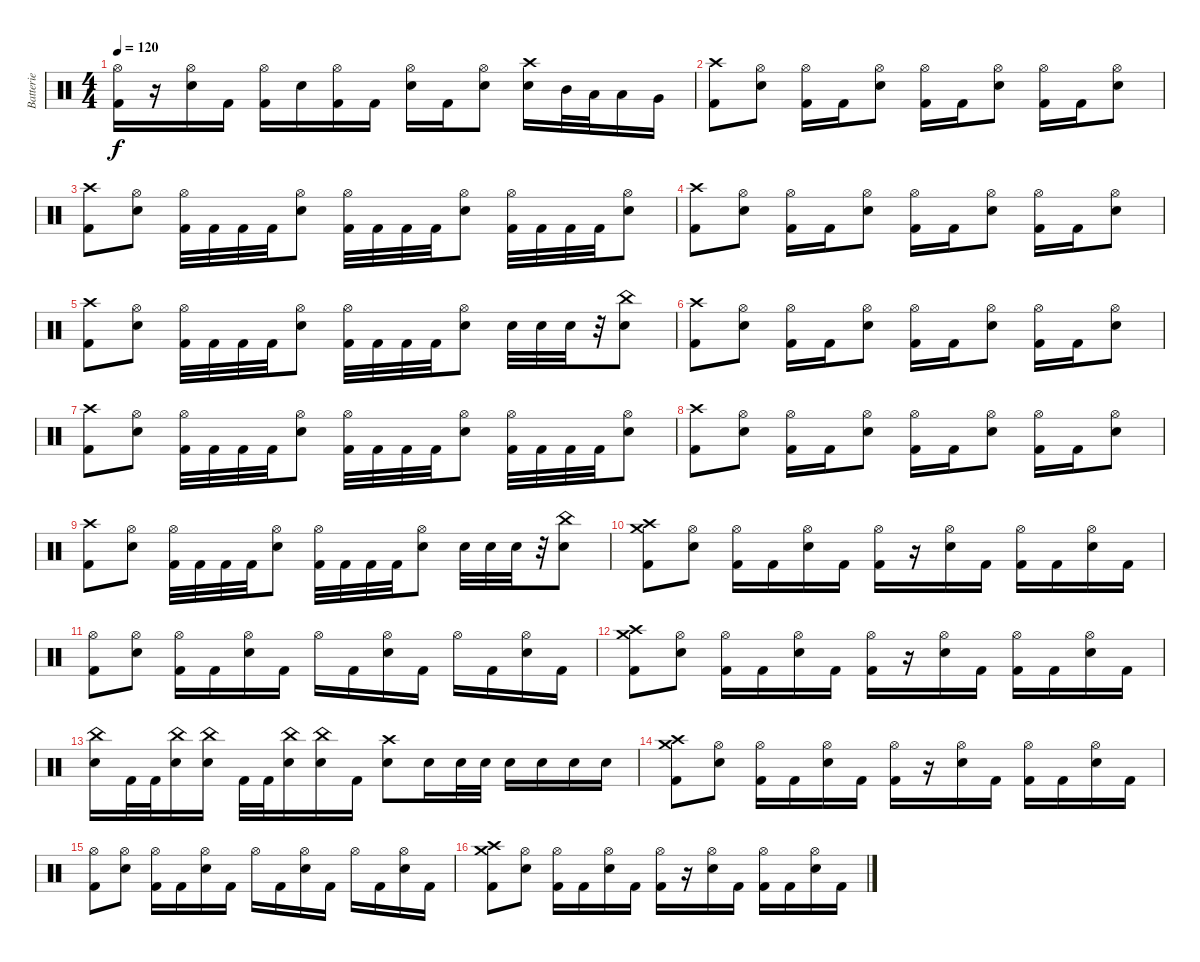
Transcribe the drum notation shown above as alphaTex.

\track ("Batterie" "Batterie") {instrument percussion}
\staff {score}
\articulation defaults
\ts (4 4)
\tempo 120
\clef neutral
\ks c
("Hi-Hat (open)" "Kick (hit) 2").16{dy f} r.16 ("Hi-Hat (open)" "Snare (hit) 2").16 "Kick (hit) 2".16 ("Hi-Hat (open)" "Kick (hit) 2").16 "Snare (hit) 2".16 ("Hi-Hat (open)" "Kick (hit) 2").16 "Kick (hit) 2".16 ("Hi-Hat (open)" "Snare (hit) 2").16 "Kick (hit) 2".16 ("Hi-Hat (open)" "Snare (hit) 2").8 ("Crash high (hit)" "Snare (hit) 2").16 "Mid Tom (hit)".32 "Low Tom (hit)".32 "Low Tom (hit)".16 "Very Low Tom (hit)".16 |
("Crash high (hit)" "Kick (hit) 2").8 ("Hi-Hat (open)" "Snare (hit) 2").8 ("Hi-Hat (open)" "Kick (hit) 2").16 "Kick (hit) 2".16 ("Hi-Hat (open)" "Snare (hit) 2").8 ("Hi-Hat (open)" "Kick (hit) 2").16 "Kick (hit) 2".16 ("Hi-Hat (open)" "Snare (hit) 2").8 ("Hi-Hat (open)" "Kick (hit) 2").16 "Kick (hit) 2".16 ("Hi-Hat (open)" "Snare (hit) 2").8 |
("Crash high (hit)" "Kick (hit) 2").8 ("Hi-Hat (open)" "Snare (hit) 2").8 ("Hi-Hat (open)" "Kick (hit) 2").32 "Kick (hit) 2".32 "Kick (hit) 2".32 "Kick (hit) 2".32 ("Hi-Hat (open)" "Snare (hit) 2").8 ("Hi-Hat (open)" "Kick (hit) 2").32 "Kick (hit) 2".32 "Kick (hit) 2".32 "Kick (hit) 2".32 ("Hi-Hat (open)" "Snare (hit) 2").8 ("Hi-Hat (open)" "Kick (hit) 2").32 "Kick (hit) 2".32 "Kick (hit) 2".32 "Kick (hit) 2".32 ("Hi-Hat (open)" "Snare (hit) 2").8 |
("Crash high (hit)" "Kick (hit) 2").8 ("Hi-Hat (open)" "Snare (hit) 2").8 ("Hi-Hat (open)" "Kick (hit) 2").16 "Kick (hit) 2".16 ("Hi-Hat (open)" "Snare (hit) 2").8 ("Hi-Hat (open)" "Kick (hit) 2").16 "Kick (hit) 2".16 ("Hi-Hat (open)" "Snare (hit) 2").8 ("Hi-Hat (open)" "Kick (hit) 2").16 "Kick (hit) 2".16 ("Hi-Hat (open)" "Snare (hit) 2").8 |
("Crash high (hit)" "Kick (hit) 2").8 ("Hi-Hat (open)" "Snare (hit) 2").8 ("Hi-Hat (open)" "Kick (hit) 2").32 "Kick (hit) 2".32 "Kick (hit) 2".32 "Kick (hit) 2".32 ("Hi-Hat (open)" "Snare (hit) 2").8 ("Hi-Hat (open)" "Kick (hit) 2").32 "Kick (hit) 2".32 "Kick (hit) 2".32 "Kick (hit) 2".32 ("Hi-Hat (open)" "Snare (hit) 2").8 "Snare (hit) 2".32 "Snare (hit) 2".32 "Snare (hit) 2".32 r.32 ("China (hit)" "Snare (hit) 2").8 |
("Crash high (hit)" "Kick (hit) 2").8 ("Hi-Hat (open)" "Snare (hit) 2").8 ("Hi-Hat (open)" "Kick (hit) 2").16 "Kick (hit) 2".16 ("Hi-Hat (open)" "Snare (hit) 2").8 ("Hi-Hat (open)" "Kick (hit) 2").16 "Kick (hit) 2".16 ("Hi-Hat (open)" "Snare (hit) 2").8 ("Hi-Hat (open)" "Kick (hit) 2").16 "Kick (hit) 2".16 ("Hi-Hat (open)" "Snare (hit) 2").8 |
("Crash high (hit)" "Kick (hit) 2").8 ("Hi-Hat (open)" "Snare (hit) 2").8 ("Hi-Hat (open)" "Kick (hit) 2").32 "Kick (hit) 2".32 "Kick (hit) 2".32 "Kick (hit) 2".32 ("Hi-Hat (open)" "Snare (hit) 2").8 ("Hi-Hat (open)" "Kick (hit) 2").32 "Kick (hit) 2".32 "Kick (hit) 2".32 "Kick (hit) 2".32 ("Hi-Hat (open)" "Snare (hit) 2").8 ("Hi-Hat (open)" "Kick (hit) 2").32 "Kick (hit) 2".32 "Kick (hit) 2".32 "Kick (hit) 2".32 ("Hi-Hat (open)" "Snare (hit) 2").8 |
("Crash high (hit)" "Kick (hit) 2").8 ("Hi-Hat (open)" "Snare (hit) 2").8 ("Hi-Hat (open)" "Kick (hit) 2").16 "Kick (hit) 2".16 ("Hi-Hat (open)" "Snare (hit) 2").8 ("Hi-Hat (open)" "Kick (hit) 2").16 "Kick (hit) 2".16 ("Hi-Hat (open)" "Snare (hit) 2").8 ("Hi-Hat (open)" "Kick (hit) 2").16 "Kick (hit) 2".16 ("Hi-Hat (open)" "Snare (hit) 2").8 |
("Crash high (hit)" "Kick (hit) 2").8 ("Hi-Hat (open)" "Snare (hit) 2").8 ("Hi-Hat (open)" "Kick (hit) 2").32 "Kick (hit) 2".32 "Kick (hit) 2".32 "Kick (hit) 2".32 ("Hi-Hat (open)" "Snare (hit) 2").8 ("Hi-Hat (open)" "Kick (hit) 2").32 "Kick (hit) 2".32 "Kick (hit) 2".32 "Kick (hit) 2".32 ("Hi-Hat (open)" "Snare (hit) 2").8 "Snare (hit) 2".32 "Snare (hit) 2".32 "Snare (hit) 2".32 r.32 ("China (hit)" "Snare (hit) 2").8 |
("Crash high (hit)" "Crash medium (hit)" "Kick (hit) 2").8 ("Hi-Hat (open)" "Snare (hit) 2").8 ("Hi-Hat (open)" "Kick (hit) 2").16 "Kick (hit) 2".16 ("Hi-Hat (open)" "Snare (hit) 2").16 "Kick (hit) 2".16 ("Hi-Hat (open)" "Kick (hit) 2").16 r.16 ("Hi-Hat (open)" "Snare (hit) 2").16 "Kick (hit) 2".16 ("Hi-Hat (open)" "Kick (hit) 2").16 "Kick (hit) 2".16 ("Hi-Hat (open)" "Snare (hit) 2").16 "Kick (hit) 2".16 |
("Hi-Hat (open)" "Kick (hit) 2").8 ("Hi-Hat (open)" "Snare (hit) 2").8 ("Hi-Hat (open)" "Kick (hit) 2").16 "Kick (hit) 2".16 ("Hi-Hat (open)" "Snare (hit) 2").16 "Kick (hit) 2".16 "Hi-Hat (open)".16 "Kick (hit) 2".16 ("Hi-Hat (open)" "Snare (hit) 2").16 "Kick (hit) 2".16 "Hi-Hat (open)".16 "Kick (hit) 2".16 ("Hi-Hat (open)" "Snare (hit) 2").16 "Kick (hit) 2".16 |
("Crash high (hit)" "Crash medium (hit)" "Kick (hit) 2").8 ("Hi-Hat (open)" "Snare (hit) 2").8 ("Hi-Hat (open)" "Kick (hit) 2").16 "Kick (hit) 2".16 ("Hi-Hat (open)" "Snare (hit) 2").16 "Kick (hit) 2".16 ("Hi-Hat (open)" "Kick (hit) 2").16 r.16 ("Hi-Hat (open)" "Snare (hit) 2").16 "Kick (hit) 2".16 ("Hi-Hat (open)" "Kick (hit) 2").16 "Kick (hit) 2".16 ("Hi-Hat (open)" "Snare (hit) 2").16 "Kick (hit) 2".16 |
("China (hit)" "Snare (hit) 2").16 "Kick (hit) 2".32 "Kick (hit) 2".32 ("China (hit)" "Snare (hit) 2").16 ("China (hit)" "Snare (hit) 2").16 "Kick (hit) 2".32 "Kick (hit) 2".32 ("China (hit)" "Snare (hit) 2").16 ("China (hit)" "Snare (hit) 2").16 "Kick (hit) 2".16 ("Crash high (hit)" "Snare (hit) 2").8 "Snare (hit) 2".16 "Snare (hit) 2".32 "Snare (hit) 2".32 "Snare (hit) 2".16 "Snare (hit) 2".16 "Snare (hit) 2".16 "Snare (hit) 2".16 |
("Crash high (hit)" "Crash medium (hit)" "Kick (hit) 2").8 ("Hi-Hat (open)" "Snare (hit) 2").8 ("Hi-Hat (open)" "Kick (hit) 2").16 "Kick (hit) 2".16 ("Hi-Hat (open)" "Snare (hit) 2").16 "Kick (hit) 2".16 ("Hi-Hat (open)" "Kick (hit) 2").16 r.16 ("Hi-Hat (open)" "Snare (hit) 2").16 "Kick (hit) 2".16 ("Hi-Hat (open)" "Kick (hit) 2").16 "Kick (hit) 2".16 ("Hi-Hat (open)" "Snare (hit) 2").16 "Kick (hit) 2".16 |
("Hi-Hat (open)" "Kick (hit) 2").8 ("Hi-Hat (open)" "Snare (hit) 2").8 ("Hi-Hat (open)" "Kick (hit) 2").16 "Kick (hit) 2".16 ("Hi-Hat (open)" "Snare (hit) 2").16 "Kick (hit) 2".16 "Hi-Hat (open)".16 "Kick (hit) 2".16 ("Hi-Hat (open)" "Snare (hit) 2").16 "Kick (hit) 2".16 "Hi-Hat (open)".16 "Kick (hit) 2".16 ("Hi-Hat (open)" "Snare (hit) 2").16 "Kick (hit) 2".16 |
("Crash high (hit)" "Crash medium (hit)" "Kick (hit) 2").8 ("Hi-Hat (open)" "Snare (hit) 2").8 ("Hi-Hat (open)" "Kick (hit) 2").16 "Kick (hit) 2".16 ("Hi-Hat (open)" "Snare (hit) 2").16 "Kick (hit) 2".16 ("Hi-Hat (open)" "Kick (hit) 2").16 r.16 ("Hi-Hat (open)" "Snare (hit) 2").16 "Kick (hit) 2".16 ("Hi-Hat (open)" "Kick (hit) 2").16 "Kick (hit) 2".16 ("Hi-Hat (open)" "Snare (hit) 2").16 "Kick (hit) 2".16
